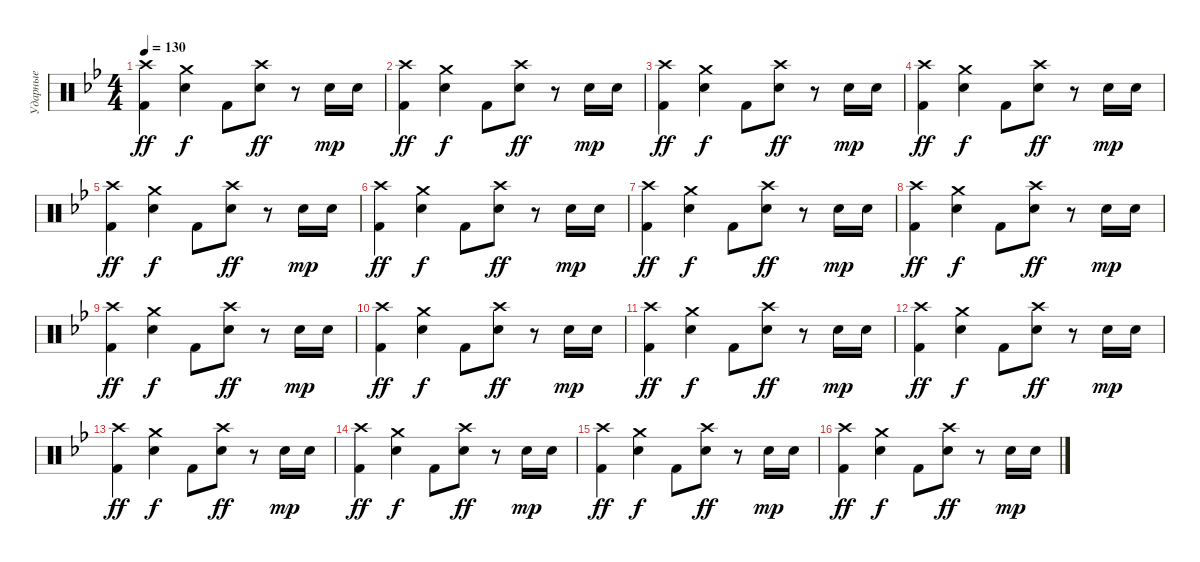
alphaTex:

\track ("Ударные" "Ударные") {instrument percussion}
\staff {score}
\articulation defaults
\ts (4 4)
\tempo 130
\clef neutral
\ks gminor
("Crash high (hit)" "Kick (hit) 2").4{dy ff} ("Crash medium (hit)" "Snare (hit) 2").4{dy f} "Kick (hit) 2".8 ("Crash high (hit)" "Snare (hit) 2").8{dy ff} r.8 "Snare (hit) 2".16{dy mp} "Snare (hit) 2".16 |
("Crash high (hit)" "Kick (hit) 2").4{dy ff} ("Crash medium (hit)" "Snare (hit) 2").4{dy f} "Kick (hit) 2".8 ("Crash high (hit)" "Snare (hit) 2").8{dy ff} r.8 "Snare (hit) 2".16{dy mp} "Snare (hit) 2".16 |
("Crash high (hit)" "Kick (hit) 2").4{dy ff} ("Crash medium (hit)" "Snare (hit) 2").4{dy f} "Kick (hit) 2".8 ("Crash high (hit)" "Snare (hit) 2").8{dy ff} r.8 "Snare (hit) 2".16{dy mp} "Snare (hit) 2".16 |
("Crash high (hit)" "Kick (hit) 2").4{dy ff} ("Crash medium (hit)" "Snare (hit) 2").4{dy f} "Kick (hit) 2".8 ("Crash high (hit)" "Snare (hit) 2").8{dy ff} r.8 "Snare (hit) 2".16{dy mp} "Snare (hit) 2".16 |
("Crash high (hit)" "Kick (hit) 2").4{dy ff} ("Crash medium (hit)" "Snare (hit) 2").4{dy f} "Kick (hit) 2".8 ("Crash high (hit)" "Snare (hit) 2").8{dy ff} r.8 "Snare (hit) 2".16{dy mp} "Snare (hit) 2".16 |
("Crash high (hit)" "Kick (hit) 2").4{dy ff} ("Crash medium (hit)" "Snare (hit) 2").4{dy f} "Kick (hit) 2".8 ("Crash high (hit)" "Snare (hit) 2").8{dy ff} r.8 "Snare (hit) 2".16{dy mp} "Snare (hit) 2".16 |
("Crash high (hit)" "Kick (hit) 2").4{dy ff} ("Crash medium (hit)" "Snare (hit) 2").4{dy f} "Kick (hit) 2".8 ("Crash high (hit)" "Snare (hit) 2").8{dy ff} r.8 "Snare (hit) 2".16{dy mp} "Snare (hit) 2".16 |
("Crash high (hit)" "Kick (hit) 2").4{dy ff} ("Crash medium (hit)" "Snare (hit) 2").4{dy f} "Kick (hit) 2".8 ("Crash high (hit)" "Snare (hit) 2").8{dy ff} r.8 "Snare (hit) 2".16{dy mp} "Snare (hit) 2".16 |
("Crash high (hit)" "Kick (hit) 2").4{dy ff} ("Crash medium (hit)" "Snare (hit) 2").4{dy f} "Kick (hit) 2".8 ("Crash high (hit)" "Snare (hit) 2").8{dy ff} r.8 "Snare (hit) 2".16{dy mp} "Snare (hit) 2".16 |
("Crash high (hit)" "Kick (hit) 2").4{dy ff} ("Crash medium (hit)" "Snare (hit) 2").4{dy f} "Kick (hit) 2".8 ("Crash high (hit)" "Snare (hit) 2").8{dy ff} r.8 "Snare (hit) 2".16{dy mp} "Snare (hit) 2".16 |
("Crash high (hit)" "Kick (hit) 2").4{dy ff} ("Crash medium (hit)" "Snare (hit) 2").4{dy f} "Kick (hit) 2".8 ("Crash high (hit)" "Snare (hit) 2").8{dy ff} r.8 "Snare (hit) 2".16{dy mp} "Snare (hit) 2".16 |
("Crash high (hit)" "Kick (hit) 2").4{dy ff} ("Crash medium (hit)" "Snare (hit) 2").4{dy f} "Kick (hit) 2".8 ("Crash high (hit)" "Snare (hit) 2").8{dy ff} r.8 "Snare (hit) 2".16{dy mp} "Snare (hit) 2".16 |
("Crash high (hit)" "Kick (hit) 2").4{dy ff} ("Crash medium (hit)" "Snare (hit) 2").4{dy f} "Kick (hit) 2".8 ("Crash high (hit)" "Snare (hit) 2").8{dy ff} r.8 "Snare (hit) 2".16{dy mp} "Snare (hit) 2".16 |
("Crash high (hit)" "Kick (hit) 2").4{dy ff} ("Crash medium (hit)" "Snare (hit) 2").4{dy f} "Kick (hit) 2".8 ("Crash high (hit)" "Snare (hit) 2").8{dy ff} r.8 "Snare (hit) 2".16{dy mp} "Snare (hit) 2".16 |
("Crash high (hit)" "Kick (hit) 2").4{dy ff} ("Crash medium (hit)" "Snare (hit) 2").4{dy f} "Kick (hit) 2".8 ("Crash high (hit)" "Snare (hit) 2").8{dy ff} r.8 "Snare (hit) 2".16{dy mp} "Snare (hit) 2".16 |
("Crash high (hit)" "Kick (hit) 2").4{dy ff} ("Crash medium (hit)" "Snare (hit) 2").4{dy f} "Kick (hit) 2".8 ("Crash high (hit)" "Snare (hit) 2").8{dy ff} r.8 "Snare (hit) 2".16{dy mp} "Snare (hit) 2".16
